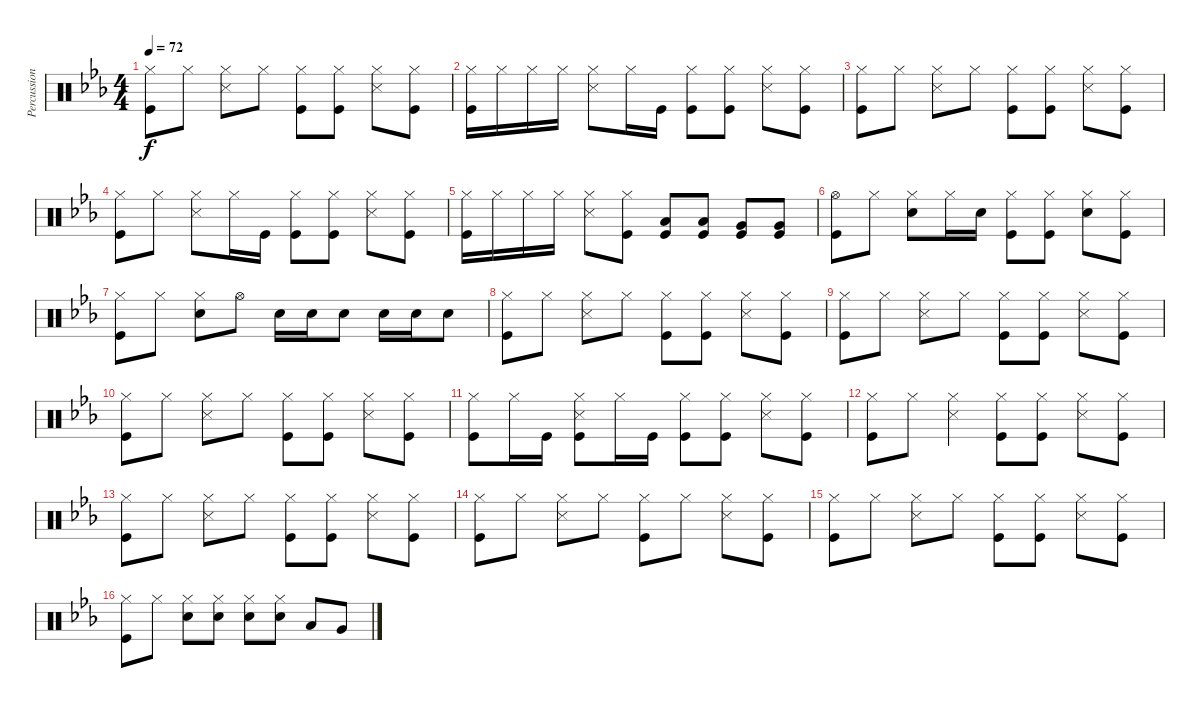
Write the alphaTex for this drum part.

\track ("Percussion" "Percussion") {instrument percussion}
\staff {score}
\articulation defaults
\ts (4 4)
\tempo 72
\clef neutral
\ks eb
("Hi-Hat (closed)" "Kick (hit)").8{dy f} "Hi-Hat (closed)".8 ("Hi-Hat (closed)" "Snare (side stick) 3").8 "Hi-Hat (closed)".8 ("Hi-Hat (closed)" "Kick (hit)").8 ("Hi-Hat (closed)" "Kick (hit)").8 ("Hi-Hat (closed)" "Snare (side stick) 3").8 ("Hi-Hat (closed)" "Kick (hit)").8 |
("Hi-Hat (closed)" "Kick (hit)").16 "Hi-Hat (closed)".16 "Hi-Hat (closed)".16 "Hi-Hat (closed)".16 ("Hi-Hat (closed)" "Snare (side stick) 3").8 "Hi-Hat (closed)".16 "Kick (hit)".16 ("Hi-Hat (closed)" "Kick (hit)").8 ("Hi-Hat (closed)" "Kick (hit)").8 ("Hi-Hat (closed)" "Snare (side stick) 3").8 ("Hi-Hat (closed)" "Kick (hit)").8 |
("Hi-Hat (closed)" "Kick (hit)").8 "Hi-Hat (closed)".8 ("Hi-Hat (closed)" "Snare (side stick) 3").8 "Hi-Hat (closed)".8 ("Hi-Hat (closed)" "Kick (hit)").8 ("Hi-Hat (closed)" "Kick (hit)").8 ("Hi-Hat (closed)" "Snare (side stick) 3").8 ("Hi-Hat (closed)" "Kick (hit)").8 |
("Hi-Hat (closed)" "Kick (hit)").8 "Hi-Hat (closed)".8 ("Hi-Hat (closed)" "Snare (side stick) 3").8 "Hi-Hat (closed)".16 "Kick (hit)".16 ("Hi-Hat (closed)" "Kick (hit)").8 ("Hi-Hat (closed)" "Kick (hit)").8 ("Hi-Hat (closed)" "Snare (side stick) 3").8 ("Hi-Hat (closed)" "Kick (hit)").8 |
("Hi-Hat (closed)" "Kick (hit)").16 "Hi-Hat (closed)".16 "Hi-Hat (closed)".16 "Hi-Hat (closed)".16 ("Hi-Hat (closed)" "Snare (side stick) 3").8 ("Hi-Hat (closed)" "Kick (hit)").8 ("Low Tom (hit)" "Kick (hit)").8 ("Low Tom (hit)" "Kick (hit)").8 ("Very Low Tom (hit)" "Kick (hit)").8 ("Very Low Tom (hit)" "Kick (hit)").8 |
("Hi-Hat (open)" "Kick (hit)").8 "Hi-Hat (closed)".8 ("Hi-Hat (closed)" "Snare (hit) 2").8 "Hi-Hat (closed)".16 "Snare (hit) 2".16 ("Hi-Hat (closed)" "Kick (hit)").8 ("Hi-Hat (closed)" "Kick (hit)").8 ("Hi-Hat (closed)" "Snare (hit) 2").8 ("Hi-Hat (closed)" "Kick (hit)").8 |
("Hi-Hat (closed)" "Kick (hit)").8 "Hi-Hat (closed)".8 ("Hi-Hat (closed)" "Snare (hit) 2").8 "Hi-Hat (open)".8 "Snare (hit) 2".16 "Snare (hit) 2".16 "Snare (hit) 2".8 "Snare (hit) 2".16 "Snare (hit) 2".16 "Snare (hit) 2".8 |
("Hi-Hat (closed)" "Kick (hit)").8 "Hi-Hat (closed)".8 ("Hi-Hat (closed)" "Snare (side stick) 3").8 "Hi-Hat (closed)".8 ("Hi-Hat (closed)" "Kick (hit)").8 ("Hi-Hat (closed)" "Kick (hit)").8 ("Hi-Hat (closed)" "Snare (side stick) 3").8 ("Hi-Hat (closed)" "Kick (hit)").8 |
("Hi-Hat (closed)" "Kick (hit)").8 "Hi-Hat (closed)".8 ("Hi-Hat (closed)" "Snare (side stick) 3").8 "Hi-Hat (closed)".8 ("Hi-Hat (closed)" "Kick (hit)").8 ("Hi-Hat (closed)" "Kick (hit)").8 ("Hi-Hat (closed)" "Snare (side stick) 3").8 ("Hi-Hat (closed)" "Kick (hit)").8 |
("Hi-Hat (closed)" "Kick (hit)").8 "Hi-Hat (closed)".8 ("Hi-Hat (closed)" "Snare (side stick) 3").8 "Hi-Hat (closed)".8 ("Hi-Hat (closed)" "Kick (hit)").8 ("Hi-Hat (closed)" "Kick (hit)").8 ("Hi-Hat (closed)" "Snare (side stick) 3").8 ("Hi-Hat (closed)" "Kick (hit)").8 |
("Hi-Hat (closed)" "Kick (hit)").8 "Hi-Hat (closed)".16 "Kick (hit)".16 ("Hi-Hat (closed)" "Snare (side stick) 3" "Kick (hit)").8 "Hi-Hat (closed)".16 "Kick (hit)".16 ("Hi-Hat (closed)" "Kick (hit)").8 ("Hi-Hat (closed)" "Kick (hit)").8 ("Hi-Hat (closed)" "Snare (side stick) 3").8 ("Hi-Hat (closed)" "Kick (hit)").8 |
("Hi-Hat (closed)" "Kick (hit)").8 "Hi-Hat (closed)".8 ("Hi-Hat (closed)" "Snare (side stick) 3").4 ("Hi-Hat (closed)" "Kick (hit)").8 ("Hi-Hat (closed)" "Kick (hit)").8 ("Hi-Hat (closed)" "Snare (side stick) 3").8 ("Hi-Hat (closed)" "Kick (hit)").8 |
("Hi-Hat (closed)" "Kick (hit)").8 "Hi-Hat (closed)".8 ("Hi-Hat (closed)" "Snare (side stick) 3").8 "Hi-Hat (closed)".8 ("Hi-Hat (closed)" "Kick (hit)").8 ("Hi-Hat (closed)" "Kick (hit)").8 ("Hi-Hat (closed)" "Snare (side stick) 3").8 ("Hi-Hat (closed)" "Kick (hit)").8 |
("Hi-Hat (closed)" "Kick (hit)").8 "Hi-Hat (closed)".8 ("Hi-Hat (closed)" "Snare (side stick) 3").8 "Hi-Hat (closed)".8 ("Hi-Hat (closed)" "Kick (hit)").8 "Hi-Hat (closed)".8 ("Hi-Hat (closed)" "Snare (side stick) 3").8 ("Hi-Hat (closed)" "Kick (hit)").8 |
("Hi-Hat (closed)" "Kick (hit)").8 "Hi-Hat (closed)".8 ("Hi-Hat (closed)" "Snare (side stick) 3").8 "Hi-Hat (closed)".8 ("Hi-Hat (closed)" "Kick (hit)").8 ("Hi-Hat (closed)" "Kick (hit)").8 ("Hi-Hat (closed)" "Snare (side stick) 3").8 ("Hi-Hat (closed)" "Kick (hit)").8 |
("Hi-Hat (closed)" "Kick (hit)").8 "Hi-Hat (closed)".8 ("Hi-Hat (closed)" "Snare (hit) 2").8 ("Hi-Hat (closed)" "Snare (hit) 2").8 ("Hi-Hat (closed)" "Snare (hit) 2").8 ("Hi-Hat (closed)" "Snare (hit) 2").8 "Low Tom (hit)".8 "Very Low Tom (hit)".8
